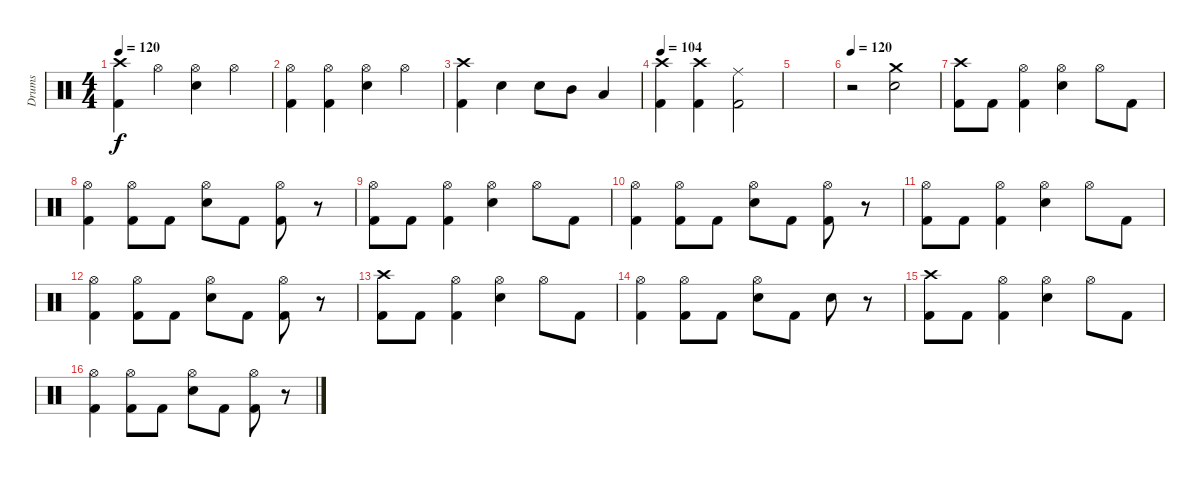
\track ("Drums" "Drums") {instrument percussion}
\staff {score}
\articulation defaults
\ts (4 4)
\tempo 120
\clef neutral
\ks c
("Crash high (hit)" "Kick (hit) 2").4{dy f} "Hi-Hat (open)".4 ("Hi-Hat (open)" "Snare (hit) 2").4 "Hi-Hat (open)".4 |
("Hi-Hat (open)" "Kick (hit) 2").4 ("Hi-Hat (open)" "Kick (hit) 2").4 ("Hi-Hat (open)" "Snare (hit) 2").4 "Hi-Hat (open)".4 |
("Crash high (hit)" "Kick (hit) 2").4 "Snare (hit) 2".4 "Snare (hit) 2".8 "Mid Tom (hit)".8 "Low Tom (hit)".4 |
\tempo 104
("Crash high (hit)" "Kick (hit) 2").4 ("Crash high (hit)" "Kick (hit) 2").4 ("Ride (middle)" "Kick (hit) 2").2 |
|
\tempo 120
r.2 ("Snare (hit) 2" "Crash medium (hit)").2 |
("Crash high (hit)" "Kick (hit) 2").8 "Kick (hit) 2".8 ("Hi-Hat (open)" "Kick (hit) 2").4 ("Hi-Hat (open)" "Snare (hit) 2").4 "Hi-Hat (open)".8 "Kick (hit) 2".8 |
("Hi-Hat (open)" "Kick (hit) 2").4 ("Hi-Hat (open)" "Kick (hit) 2").8 "Kick (hit) 2".8 ("Hi-Hat (open)" "Snare (hit) 2").8 "Kick (hit) 2".8 ("Hi-Hat (open)" "Kick (hit) 2").8 r.8 |
("Hi-Hat (open)" "Kick (hit) 2").8 "Kick (hit) 2".8 ("Hi-Hat (open)" "Kick (hit) 2").4 ("Hi-Hat (open)" "Snare (hit) 2").4 "Hi-Hat (open)".8 "Kick (hit) 2".8 |
("Hi-Hat (open)" "Kick (hit) 2").4 ("Hi-Hat (open)" "Kick (hit) 2").8 "Kick (hit) 2".8 ("Hi-Hat (open)" "Snare (hit) 2").8 "Kick (hit) 2".8 ("Hi-Hat (open)" "Kick (hit) 2").8 r.8 |
("Hi-Hat (open)" "Kick (hit) 2").8 "Kick (hit) 2".8 ("Hi-Hat (open)" "Kick (hit) 2").4 ("Hi-Hat (open)" "Snare (hit) 2").4 "Hi-Hat (open)".8 "Kick (hit) 2".8 |
("Hi-Hat (open)" "Kick (hit) 2").4 ("Hi-Hat (open)" "Kick (hit) 2").8 "Kick (hit) 2".8 ("Hi-Hat (open)" "Snare (hit) 2").8 "Kick (hit) 2".8 ("Hi-Hat (open)" "Kick (hit) 2").8 r.8 |
("Crash high (hit)" "Kick (hit) 2").8 "Kick (hit) 2".8 ("Hi-Hat (open)" "Kick (hit) 2").4 ("Hi-Hat (open)" "Snare (hit) 2").4 "Hi-Hat (open)".8 "Kick (hit) 2".8 |
("Hi-Hat (open)" "Kick (hit) 2").4 ("Hi-Hat (open)" "Kick (hit) 2").8 "Kick (hit) 2".8 ("Hi-Hat (open)" "Snare (hit) 2").8 "Kick (hit) 2".8 "Snare (hit) 2".8 r.8 |
("Crash high (hit)" "Kick (hit) 2").8 "Kick (hit) 2".8 ("Hi-Hat (open)" "Kick (hit) 2").4 ("Hi-Hat (open)" "Snare (hit) 2").4 "Hi-Hat (open)".8 "Kick (hit) 2".8 |
("Hi-Hat (open)" "Kick (hit) 2").4 ("Hi-Hat (open)" "Kick (hit) 2").8 "Kick (hit) 2".8 ("Hi-Hat (open)" "Snare (hit) 2").8 "Kick (hit) 2".8 ("Hi-Hat (open)" "Kick (hit) 2").8 r.8
